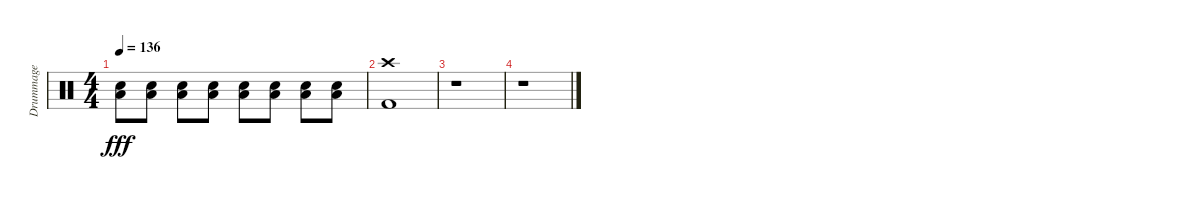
\track ("Drummage" "Drummage") {instrument percussion}
\staff {score}
\articulation defaults
\ts (4 4)
\tempo 136
\clef neutral
\ks c
("Low Floor Tom (hit)" "Snare (hit) 2").8{dy fff} ("Low Floor Tom (hit)" "Snare (hit) 2").8 ("Low Floor Tom (hit)" "Snare (hit) 2").8 ("Low Floor Tom (hit)" "Snare (hit) 2").8 ("Low Floor Tom (hit)" "Snare (hit) 2").8 ("Low Floor Tom (hit)" "Snare (hit) 2").8 ("Low Floor Tom (hit)" "Snare (hit) 2").8 ("Low Floor Tom (hit)" "Snare (hit) 2").8 |
("Crash high (hit)" "Kick (hit) 2").1 |
r.1 |
r.1
